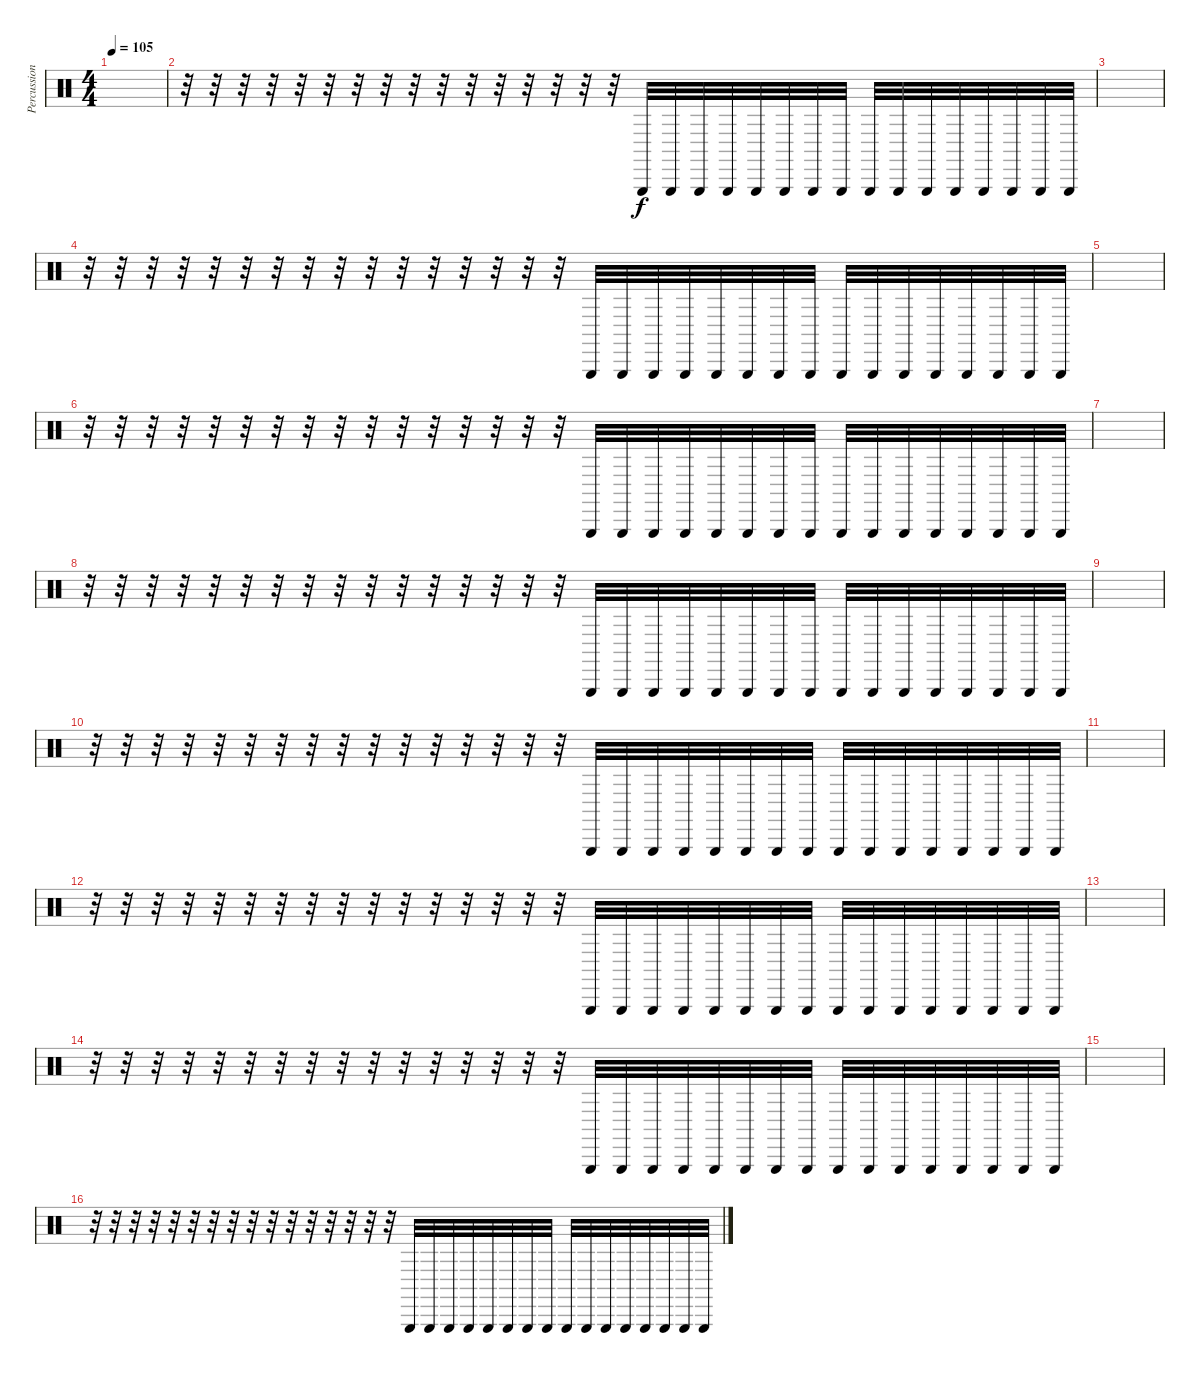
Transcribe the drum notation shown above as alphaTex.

\track ("Percussion" "Percussion") {instrument percussion}
\staff {score}
\articulation defaults
\ts (4 4)
\tempo 105
\clef neutral
\ks c
|
r.32 r.32 r.32 r.32 r.32 r.32 r.32 r.32 r.32 r.32 r.32 r.32 r.32 r.32 r.32 r.32 "Triangle (hit)".32{balance 4} "Triangle (hit)".32{balance 5} "Triangle (hit)".32{balance 11} "Triangle (hit)".32{balance 8} "Triangle (hit)".32{balance 3} "Triangle (hit)".32{balance 7} "Triangle (hit)".32{balance 14} "Triangle (hit)".32{balance 10} "Triangle (hit)".32{balance 5} "Triangle (hit)".32{balance 5} "Triangle (hit)".32{balance 13} "Triangle (hit)".32{balance 11} "Triangle (hit)".32{balance 8} "Triangle (hit)".32{balance 5} "Triangle (hit)".32{balance 4} "Triangle (hit)".32{balance 8} |
|
r.32 r.32 r.32 r.32 r.32 r.32 r.32 r.32 r.32 r.32 r.32 r.32 r.32 r.32 r.32 r.32 "Triangle (hit)".32{balance 4} "Triangle (hit)".32{balance 5} "Triangle (hit)".32{balance 11} "Triangle (hit)".32{balance 8} "Triangle (hit)".32{balance 3} "Triangle (hit)".32{balance 7} "Triangle (hit)".32{balance 14} "Triangle (hit)".32{balance 10} "Triangle (hit)".32{balance 5} "Triangle (hit)".32{balance 5} "Triangle (hit)".32{balance 13} "Triangle (hit)".32{balance 11} "Triangle (hit)".32{balance 8} "Triangle (hit)".32{balance 5} "Triangle (hit)".32{balance 4} "Triangle (hit)".32{balance 8} |
|
r.32 r.32 r.32 r.32 r.32 r.32 r.32 r.32 r.32 r.32 r.32 r.32 r.32 r.32 r.32 r.32 "Triangle (hit)".32{balance 4} "Triangle (hit)".32{balance 5} "Triangle (hit)".32{balance 11} "Triangle (hit)".32{balance 8} "Triangle (hit)".32{balance 3} "Triangle (hit)".32{balance 7} "Triangle (hit)".32{balance 14} "Triangle (hit)".32{balance 10} "Triangle (hit)".32{balance 5} "Triangle (hit)".32{balance 5} "Triangle (hit)".32{balance 13} "Triangle (hit)".32{balance 11} "Triangle (hit)".32{balance 8} "Triangle (hit)".32{balance 5} "Triangle (hit)".32{balance 4} "Triangle (hit)".32{balance 8} |
|
r.32 r.32 r.32 r.32 r.32 r.32 r.32 r.32 r.32 r.32 r.32 r.32 r.32 r.32 r.32 r.32 "Triangle (hit)".32{balance 4} "Triangle (hit)".32{balance 5} "Triangle (hit)".32{balance 11} "Triangle (hit)".32{balance 8} "Triangle (hit)".32{balance 3} "Triangle (hit)".32{balance 7} "Triangle (hit)".32{balance 14} "Triangle (hit)".32{balance 10} "Triangle (hit)".32{balance 5} "Triangle (hit)".32{balance 5} "Triangle (hit)".32{balance 13} "Triangle (hit)".32{balance 11} "Triangle (hit)".32{balance 8} "Triangle (hit)".32{balance 5} "Triangle (hit)".32{balance 4} "Triangle (hit)".32{balance 8} |
|
r.32 r.32 r.32 r.32 r.32 r.32 r.32 r.32 r.32 r.32 r.32 r.32 r.32 r.32 r.32 r.32 "Triangle (hit)".32{balance 4} "Triangle (hit)".32{balance 5} "Triangle (hit)".32{balance 11} "Triangle (hit)".32{balance 8} "Triangle (hit)".32{balance 3} "Triangle (hit)".32{balance 7} "Triangle (hit)".32{balance 14} "Triangle (hit)".32{balance 10} "Triangle (hit)".32{balance 5} "Triangle (hit)".32{balance 5} "Triangle (hit)".32{balance 13} "Triangle (hit)".32{balance 11} "Triangle (hit)".32{balance 8} "Triangle (hit)".32{balance 5} "Triangle (hit)".32{balance 4} "Triangle (hit)".32{balance 8} |
|
r.32 r.32 r.32 r.32 r.32 r.32 r.32 r.32 r.32 r.32 r.32 r.32 r.32 r.32 r.32 r.32 "Triangle (hit)".32{balance 4} "Triangle (hit)".32{balance 5} "Triangle (hit)".32{balance 11} "Triangle (hit)".32{balance 8} "Triangle (hit)".32{balance 3} "Triangle (hit)".32{balance 7} "Triangle (hit)".32{balance 14} "Triangle (hit)".32{balance 10} "Triangle (hit)".32{balance 5} "Triangle (hit)".32{balance 5} "Triangle (hit)".32{balance 13} "Triangle (hit)".32{balance 11} "Triangle (hit)".32{balance 8} "Triangle (hit)".32{balance 5} "Triangle (hit)".32{balance 4} "Triangle (hit)".32{balance 8} |
|
r.32 r.32 r.32 r.32 r.32 r.32 r.32 r.32 r.32 r.32 r.32 r.32 r.32 r.32 r.32 r.32 "Triangle (hit)".32{balance 4} "Triangle (hit)".32{balance 5} "Triangle (hit)".32{balance 11} "Triangle (hit)".32{balance 8} "Triangle (hit)".32{balance 3} "Triangle (hit)".32{balance 7} "Triangle (hit)".32{balance 14} "Triangle (hit)".32{balance 10} "Triangle (hit)".32{balance 5} "Triangle (hit)".32{balance 5} "Triangle (hit)".32{balance 13} "Triangle (hit)".32{balance 11} "Triangle (hit)".32{balance 8} "Triangle (hit)".32{balance 5} "Triangle (hit)".32{balance 4} "Triangle (hit)".32{balance 8} |
|
r.32 r.32 r.32 r.32 r.32 r.32 r.32 r.32 r.32 r.32 r.32 r.32 r.32 r.32 r.32 r.32 "Triangle (hit)".32{balance 4} "Triangle (hit)".32{balance 5} "Triangle (hit)".32{balance 11} "Triangle (hit)".32{balance 8} "Triangle (hit)".32{balance 3} "Triangle (hit)".32{balance 7} "Triangle (hit)".32{balance 14} "Triangle (hit)".32{balance 10} "Triangle (hit)".32{balance 5} "Triangle (hit)".32{balance 5} "Triangle (hit)".32{balance 13} "Triangle (hit)".32{balance 11} "Triangle (hit)".32{balance 8} "Triangle (hit)".32{balance 5} "Triangle (hit)".32{balance 4} "Triangle (hit)".32{balance 8}
